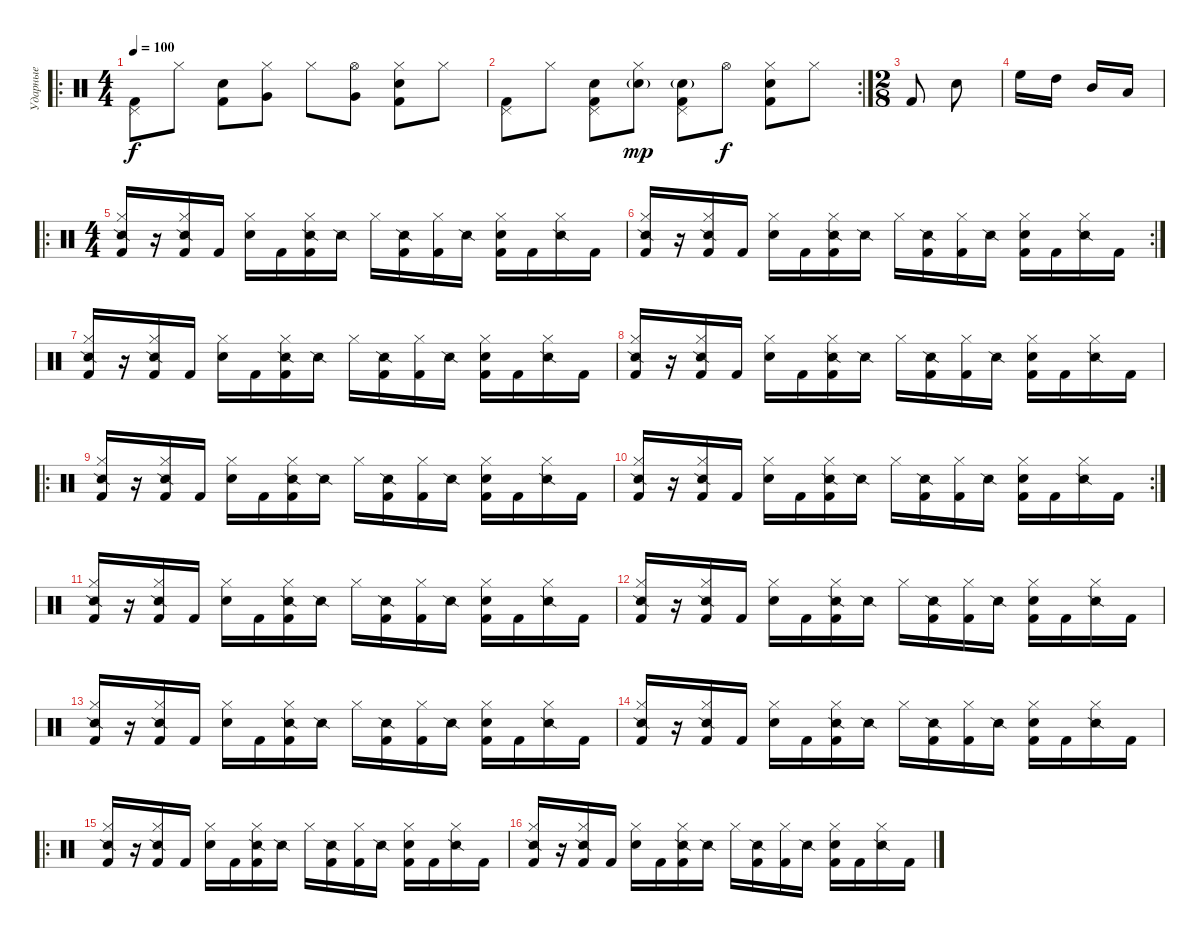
\track ("Ударные" "Ударные") {instrument percussion}
\staff {score}
\articulation defaults
\ro
\ts (4 4)
\tempo 100
\clef neutral
\ks c
("Kick (hit) 2" "Pedal Hi-Hat (hit)").8{dy f} "Hi-Hat (closed)".8 ("Snare (hit) 2" "Kick (hit) 2").8 ("Hi-Hat (closed)" "Very Low Tom (hit)").8 "Hi-Hat (closed)".8 ("Hi-Hat (open)" "Very Low Tom (hit)").8 ("Hi-Hat (closed)" "Kick (hit) 2" "Snare (hit) 2").8 "Hi-Hat (closed)".8 |
\rc 2
("Pedal Hi-Hat (hit)" "Kick (hit) 2").8 "Hi-Hat (closed)".8 ("Pedal Hi-Hat (hit)" "Kick (hit) 2" "Snare (hit) 2").8 ("Hi-Hat (closed)" "Snare (hit) 2"{g}).8{dy mp} ("Pedal Hi-Hat (hit)" "Kick (hit) 2" "Snare (hit) 2"{g}).8 "Hi-Hat (open)".8{dy f} ("Hi-Hat (closed)" "Kick (hit) 2" "Snare (hit) 2").8 "Hi-Hat (closed)".8 |
\ts (2 8)
"Kick (hit) 2".8 "Snare (hit) 2".8 |
"High Floor Tom (hit)".16 "High Tom (hit)".16 "Mid Tom (hit)".16 "Low Tom (hit)".16 |
\ro
\ts (4 4)
("Kick (hit) 2" "Hi-Hat (closed)" "Snare (side stick) 2").16 r.16 ("Kick (hit) 2" "Hi-Hat (closed)" "Snare (side stick) 2").16 "Kick (hit) 2".16 ("Snare (hit) 2" "Hi-Hat (closed)").16 "Kick (hit) 2".16 ("Kick (hit) 2" "Hi-Hat (closed)" "Snare (side stick) 2").16 "Snare (side stick) 2".16 "Hi-Hat (closed)".16 ("Kick (hit) 2" "Snare (side stick) 2").16 ("Kick (hit) 2" "Hi-Hat (closed)").16 "Snare (side stick) 2".16 ("Kick (hit) 2" "Snare (hit) 2" "Hi-Hat (closed)").16 "Kick (hit) 2".16 ("Hi-Hat (closed)" "Snare (side stick) 2").16 "Kick (hit) 2".16 |
\rc 2
("Kick (hit) 2" "Hi-Hat (closed)" "Snare (side stick) 2").16 r.16 ("Kick (hit) 2" "Hi-Hat (closed)" "Snare (side stick) 2").16 "Kick (hit) 2".16 ("Snare (hit) 2" "Hi-Hat (closed)").16 "Kick (hit) 2".16 ("Kick (hit) 2" "Hi-Hat (closed)" "Snare (side stick) 2").16 "Snare (side stick) 2".16 "Hi-Hat (closed)".16 ("Kick (hit) 2" "Snare (side stick) 2").16 ("Kick (hit) 2" "Hi-Hat (closed)").16 "Snare (side stick) 2".16 ("Kick (hit) 2" "Snare (hit) 2" "Hi-Hat (closed)").16 "Kick (hit) 2".16 ("Hi-Hat (closed)" "Snare (side stick) 2").16 "Kick (hit) 2".16 |
("Kick (hit) 2" "Hi-Hat (closed)" "Snare (side stick) 2").16 r.16 ("Kick (hit) 2" "Hi-Hat (closed)" "Snare (side stick) 2").16 "Kick (hit) 2".16 ("Snare (hit) 2" "Hi-Hat (closed)").16 "Kick (hit) 2".16 ("Kick (hit) 2" "Hi-Hat (closed)" "Snare (side stick) 2").16 "Snare (side stick) 2".16 "Hi-Hat (closed)".16 ("Kick (hit) 2" "Snare (side stick) 2").16 ("Kick (hit) 2" "Hi-Hat (closed)").16 "Snare (side stick) 2".16 ("Kick (hit) 2" "Snare (hit) 2" "Hi-Hat (closed)").16 "Kick (hit) 2".16 ("Hi-Hat (closed)" "Snare (side stick) 2").16 "Kick (hit) 2".16 |
("Kick (hit) 2" "Hi-Hat (closed)" "Snare (side stick) 2").16 r.16 ("Kick (hit) 2" "Hi-Hat (closed)" "Snare (side stick) 2").16 "Kick (hit) 2".16 ("Snare (hit) 2" "Hi-Hat (closed)").16 "Kick (hit) 2".16 ("Kick (hit) 2" "Hi-Hat (closed)" "Snare (side stick) 2").16 "Snare (side stick) 2".16 "Hi-Hat (closed)".16 ("Kick (hit) 2" "Snare (side stick) 2").16 ("Kick (hit) 2" "Hi-Hat (closed)").16 "Snare (side stick) 2".16 ("Kick (hit) 2" "Snare (hit) 2" "Hi-Hat (closed)").16 "Kick (hit) 2".16 ("Hi-Hat (closed)" "Snare (side stick) 2").16 "Kick (hit) 2".16 |
\ro
("Kick (hit) 2" "Hi-Hat (closed)" "Snare (side stick) 2").16 r.16 ("Kick (hit) 2" "Hi-Hat (closed)" "Snare (side stick) 2").16 "Kick (hit) 2".16 ("Snare (hit) 2" "Hi-Hat (closed)").16 "Kick (hit) 2".16 ("Kick (hit) 2" "Hi-Hat (closed)" "Snare (side stick) 2").16 "Snare (side stick) 2".16 "Hi-Hat (closed)".16 ("Kick (hit) 2" "Snare (side stick) 2").16 ("Kick (hit) 2" "Hi-Hat (closed)").16 "Snare (side stick) 2".16 ("Kick (hit) 2" "Snare (hit) 2" "Hi-Hat (closed)").16 "Kick (hit) 2".16 ("Hi-Hat (closed)" "Snare (side stick) 2").16 "Kick (hit) 2".16 |
\rc 2
("Kick (hit) 2" "Hi-Hat (closed)" "Snare (side stick) 2").16 r.16 ("Kick (hit) 2" "Hi-Hat (closed)" "Snare (side stick) 2").16 "Kick (hit) 2".16 ("Snare (hit) 2" "Hi-Hat (closed)").16 "Kick (hit) 2".16 ("Kick (hit) 2" "Hi-Hat (closed)" "Snare (side stick) 2").16 "Snare (side stick) 2".16 "Hi-Hat (closed)".16 ("Kick (hit) 2" "Snare (side stick) 2").16 ("Kick (hit) 2" "Hi-Hat (closed)").16 "Snare (side stick) 2".16 ("Kick (hit) 2" "Snare (hit) 2" "Hi-Hat (closed)").16 "Kick (hit) 2".16 ("Hi-Hat (closed)" "Snare (side stick) 2").16 "Kick (hit) 2".16 |
("Kick (hit) 2" "Hi-Hat (closed)" "Snare (side stick) 2").16 r.16 ("Kick (hit) 2" "Hi-Hat (closed)" "Snare (side stick) 2").16 "Kick (hit) 2".16 ("Snare (hit) 2" "Hi-Hat (closed)").16 "Kick (hit) 2".16 ("Kick (hit) 2" "Hi-Hat (closed)" "Snare (side stick) 2").16 "Snare (side stick) 2".16 "Hi-Hat (closed)".16 ("Kick (hit) 2" "Snare (side stick) 2").16 ("Kick (hit) 2" "Hi-Hat (closed)").16 "Snare (side stick) 2".16 ("Kick (hit) 2" "Snare (hit) 2" "Hi-Hat (closed)").16 "Kick (hit) 2".16 ("Hi-Hat (closed)" "Snare (side stick) 2").16 "Kick (hit) 2".16 |
("Kick (hit) 2" "Hi-Hat (closed)" "Snare (side stick) 2").16 r.16 ("Kick (hit) 2" "Hi-Hat (closed)" "Snare (side stick) 2").16 "Kick (hit) 2".16 ("Snare (hit) 2" "Hi-Hat (closed)").16 "Kick (hit) 2".16 ("Kick (hit) 2" "Hi-Hat (closed)" "Snare (side stick) 2").16 "Snare (side stick) 2".16 "Hi-Hat (closed)".16 ("Kick (hit) 2" "Snare (side stick) 2").16 ("Kick (hit) 2" "Hi-Hat (closed)").16 "Snare (side stick) 2".16 ("Kick (hit) 2" "Snare (hit) 2" "Hi-Hat (closed)").16 "Kick (hit) 2".16 ("Hi-Hat (closed)" "Snare (side stick) 2").16 "Kick (hit) 2".16 |
("Kick (hit) 2" "Hi-Hat (closed)" "Snare (side stick) 2").16 r.16 ("Kick (hit) 2" "Hi-Hat (closed)" "Snare (side stick) 2").16 "Kick (hit) 2".16 ("Snare (hit) 2" "Hi-Hat (closed)").16 "Kick (hit) 2".16 ("Kick (hit) 2" "Hi-Hat (closed)" "Snare (side stick) 2").16 "Snare (side stick) 2".16 "Hi-Hat (closed)".16 ("Kick (hit) 2" "Snare (side stick) 2").16 ("Kick (hit) 2" "Hi-Hat (closed)").16 "Snare (side stick) 2".16 ("Kick (hit) 2" "Snare (hit) 2" "Hi-Hat (closed)").16 "Kick (hit) 2".16 ("Hi-Hat (closed)" "Snare (side stick) 2").16 "Kick (hit) 2".16 |
("Kick (hit) 2" "Hi-Hat (closed)" "Snare (side stick) 2").16 r.16 ("Kick (hit) 2" "Hi-Hat (closed)" "Snare (side stick) 2").16 "Kick (hit) 2".16 ("Snare (hit) 2" "Hi-Hat (closed)").16 "Kick (hit) 2".16 ("Kick (hit) 2" "Hi-Hat (closed)" "Snare (side stick) 2").16 "Snare (side stick) 2".16 "Hi-Hat (closed)".16 ("Kick (hit) 2" "Snare (side stick) 2").16 ("Kick (hit) 2" "Hi-Hat (closed)").16 "Snare (side stick) 2".16 ("Kick (hit) 2" "Snare (hit) 2" "Hi-Hat (closed)").16 "Kick (hit) 2".16 ("Hi-Hat (closed)" "Snare (side stick) 2").16 "Kick (hit) 2".16 |
\ro
("Kick (hit) 2" "Hi-Hat (closed)" "Snare (side stick) 2").16 r.16 ("Kick (hit) 2" "Hi-Hat (closed)" "Snare (side stick) 2").16 "Kick (hit) 2".16 ("Snare (hit) 2" "Hi-Hat (closed)").16 "Kick (hit) 2".16 ("Kick (hit) 2" "Hi-Hat (closed)" "Snare (side stick) 2").16 "Snare (side stick) 2".16 "Hi-Hat (closed)".16 ("Kick (hit) 2" "Snare (side stick) 2").16 ("Kick (hit) 2" "Hi-Hat (closed)").16 "Snare (side stick) 2".16 ("Kick (hit) 2" "Snare (hit) 2" "Hi-Hat (closed)").16 "Kick (hit) 2".16 ("Hi-Hat (closed)" "Snare (side stick) 2").16 "Kick (hit) 2".16 |
("Kick (hit) 2" "Hi-Hat (closed)" "Snare (side stick) 2").16 r.16 ("Kick (hit) 2" "Hi-Hat (closed)" "Snare (side stick) 2").16 "Kick (hit) 2".16 ("Snare (hit) 2" "Hi-Hat (closed)").16 "Kick (hit) 2".16 ("Kick (hit) 2" "Hi-Hat (closed)" "Snare (side stick) 2").16 "Snare (side stick) 2".16 "Hi-Hat (closed)".16 ("Kick (hit) 2" "Snare (side stick) 2").16 ("Kick (hit) 2" "Hi-Hat (closed)").16 "Snare (side stick) 2".16 ("Kick (hit) 2" "Snare (hit) 2" "Hi-Hat (closed)").16 "Kick (hit) 2".16 ("Hi-Hat (closed)" "Snare (side stick) 2").16 "Kick (hit) 2".16
